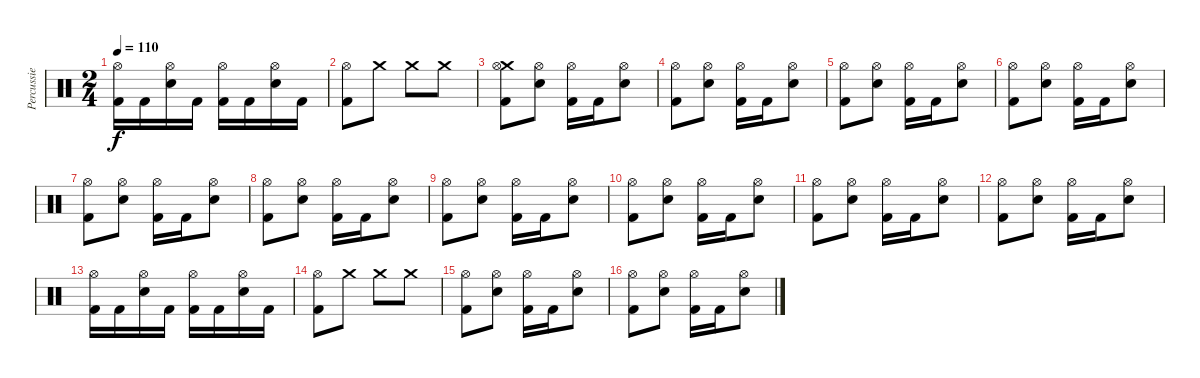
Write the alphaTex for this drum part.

\track ("Percussie" "Percussie") {instrument percussion}
\staff {score}
\articulation defaults
\ts (2 4)
\tempo 110
\clef neutral
\ks c
("Hi-Hat (open)" "Kick (hit) 2").16{dy f} "Kick (hit) 2".16 ("Hi-Hat (open)" "Electric Snare (hit)").16 "Kick (hit) 2".16 ("Hi-Hat (open)" "Kick (hit) 2").16 "Kick (hit) 2".16 ("Hi-Hat (open)" "Electric Snare (hit)").16 "Kick (hit) 2".16 |
("Hi-Hat (open)" "Kick (hit) 2").8 "Crash medium (hit)".8 "Crash medium (hit)".8 "Crash medium (hit)".8 |
("Crash medium (hit)" "Hi-Hat (open)" "Kick (hit) 2").8 ("Hi-Hat (open)" "Electric Snare (hit)").8 ("Hi-Hat (open)" "Kick (hit) 2").16 "Kick (hit) 2".16 ("Hi-Hat (open)" "Electric Snare (hit)").8 |
("Hi-Hat (open)" "Kick (hit) 2").8 ("Hi-Hat (open)" "Electric Snare (hit)").8 ("Hi-Hat (open)" "Kick (hit) 2").16 "Kick (hit) 2".16 ("Hi-Hat (open)" "Electric Snare (hit)").8 |
("Hi-Hat (open)" "Kick (hit) 2").8 ("Hi-Hat (open)" "Electric Snare (hit)").8 ("Hi-Hat (open)" "Kick (hit) 2").16 "Kick (hit) 2".16 ("Hi-Hat (open)" "Electric Snare (hit)").8 |
("Hi-Hat (open)" "Kick (hit) 2").8 ("Hi-Hat (open)" "Electric Snare (hit)").8 ("Hi-Hat (open)" "Kick (hit) 2").16 "Kick (hit) 2".16 ("Hi-Hat (open)" "Electric Snare (hit)").8 |
("Hi-Hat (open)" "Kick (hit) 2").8 ("Hi-Hat (open)" "Electric Snare (hit)").8 ("Hi-Hat (open)" "Kick (hit) 2").16 "Kick (hit) 2".16 ("Hi-Hat (open)" "Electric Snare (hit)").8 |
("Hi-Hat (open)" "Kick (hit) 2").8 ("Hi-Hat (open)" "Electric Snare (hit)").8 ("Hi-Hat (open)" "Kick (hit) 2").16 "Kick (hit) 2".16 ("Hi-Hat (open)" "Electric Snare (hit)").8 |
("Hi-Hat (open)" "Kick (hit) 2").8 ("Hi-Hat (open)" "Electric Snare (hit)").8 ("Hi-Hat (open)" "Kick (hit) 2").16 "Kick (hit) 2".16 ("Hi-Hat (open)" "Electric Snare (hit)").8 |
("Hi-Hat (open)" "Kick (hit) 2").8 ("Hi-Hat (open)" "Electric Snare (hit)").8 ("Hi-Hat (open)" "Kick (hit) 2").16 "Kick (hit) 2".16 ("Hi-Hat (open)" "Electric Snare (hit)").8 |
("Hi-Hat (open)" "Kick (hit) 2").8 ("Hi-Hat (open)" "Electric Snare (hit)").8 ("Hi-Hat (open)" "Kick (hit) 2").16 "Kick (hit) 2".16 ("Hi-Hat (open)" "Electric Snare (hit)").8 |
("Hi-Hat (open)" "Kick (hit) 2").8 ("Hi-Hat (open)" "Electric Snare (hit)").8 ("Hi-Hat (open)" "Kick (hit) 2").16 "Kick (hit) 2".16 ("Hi-Hat (open)" "Electric Snare (hit)").8 |
("Hi-Hat (open)" "Kick (hit) 2").16 "Kick (hit) 2".16 ("Hi-Hat (open)" "Electric Snare (hit)").16 "Kick (hit) 2".16 ("Hi-Hat (open)" "Kick (hit) 2").16 "Kick (hit) 2".16 ("Hi-Hat (open)" "Electric Snare (hit)").16 "Kick (hit) 2".16 |
("Hi-Hat (open)" "Kick (hit) 2").8 "Crash medium (hit)".8 "Crash medium (hit)".8 "Crash medium (hit)".8 |
("Hi-Hat (open)" "Kick (hit) 2").8 ("Hi-Hat (open)" "Electric Snare (hit)").8 ("Hi-Hat (open)" "Kick (hit) 2").16 "Kick (hit) 2".16 ("Hi-Hat (open)" "Electric Snare (hit)").8 |
("Hi-Hat (open)" "Kick (hit) 2").8 ("Hi-Hat (open)" "Electric Snare (hit)").8 ("Hi-Hat (open)" "Kick (hit) 2").16 "Kick (hit) 2".16 ("Hi-Hat (open)" "Electric Snare (hit)").8
